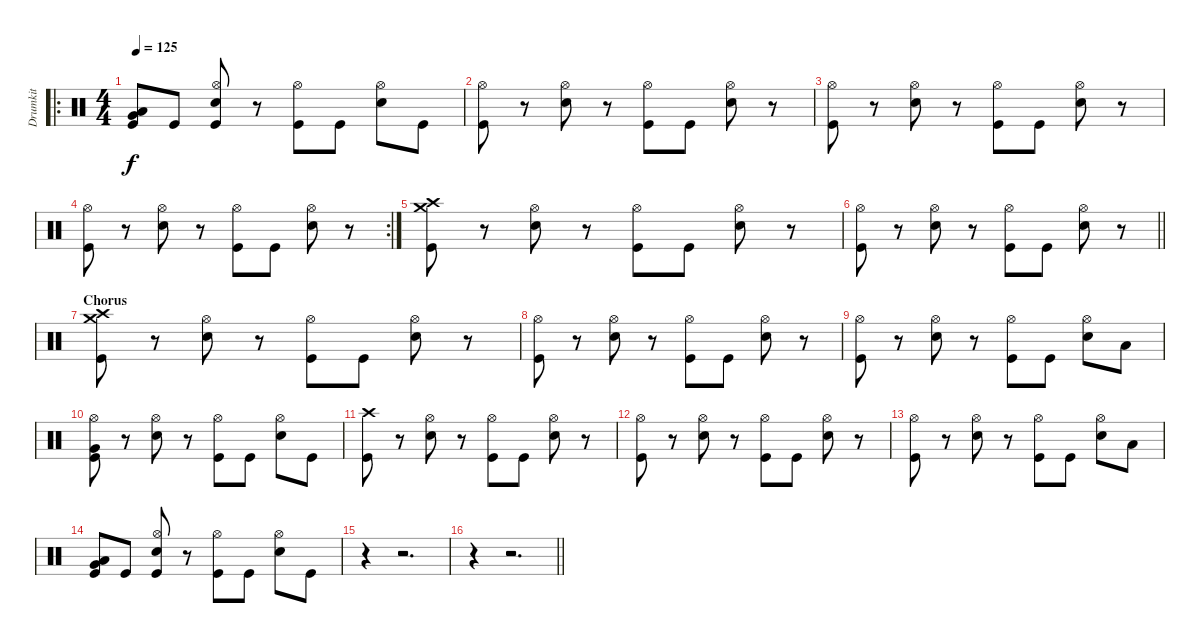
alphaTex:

\track ("Drumkit" "Drumkit") {instrument percussion}
\staff {score}
\articulation defaults
\ro
\ts (4 4)
\tempo 125
\clef neutral
\ks c
("Very Low Tom (hit)" "Low Tom (hit)" "Kick (hit)").8{dy f} "Kick (hit)".8 ("Hi-Hat (open)" "Snare (hit) 2" "Kick (hit)").8 r.8 ("Hi-Hat (open)" "Kick (hit)").8 "Kick (hit)".8 ("Hi-Hat (open)" "Snare (hit) 2").8 "Kick (hit)".8 |
("Hi-Hat (open)" "Kick (hit)").8 r.8 ("Hi-Hat (open)" "Snare (hit) 2").8 r.8 ("Hi-Hat (open)" "Kick (hit)").8 "Kick (hit)".8 ("Hi-Hat (open)" "Snare (hit) 2").8 r.8 |
("Hi-Hat (open)" "Kick (hit)").8 r.8 ("Hi-Hat (open)" "Snare (hit) 2").8 r.8 ("Hi-Hat (open)" "Kick (hit)").8 "Kick (hit)".8 ("Hi-Hat (open)" "Snare (hit) 2").8 r.8 |
\rc 2
("Hi-Hat (open)" "Kick (hit)").8 r.8 ("Hi-Hat (open)" "Snare (hit) 2").8 r.8 ("Hi-Hat (open)" "Kick (hit)").8 "Kick (hit)".8 ("Hi-Hat (open)" "Snare (hit) 2").8 r.8 |
("Crash medium (hit)" "Crash high (hit)" "Kick (hit)").8 r.8 ("Hi-Hat (open)" "Snare (hit) 2").8 r.8 ("Hi-Hat (open)" "Kick (hit)").8 "Kick (hit)".8 ("Hi-Hat (open)" "Snare (hit) 2").8 r.8 |
\barLineRight lightlight
("Hi-Hat (open)" "Kick (hit)").8 r.8 ("Hi-Hat (open)" "Snare (hit) 2").8 r.8 ("Hi-Hat (open)" "Kick (hit)").8 "Kick (hit)".8 ("Hi-Hat (open)" "Snare (hit) 2").8 r.8 |
\section ("" "Chorus")
("Crash medium (hit)" "Crash high (hit)" "Kick (hit)").8 r.8 ("Hi-Hat (open)" "Snare (hit) 2").8 r.8 ("Hi-Hat (open)" "Kick (hit)").8 "Kick (hit)".8 ("Hi-Hat (open)" "Snare (hit) 2").8 r.8 |
("Hi-Hat (open)" "Kick (hit)").8 r.8 ("Hi-Hat (open)" "Snare (hit) 2").8 r.8 ("Hi-Hat (open)" "Kick (hit)").8 "Kick (hit)".8 ("Hi-Hat (open)" "Snare (hit) 2").8 r.8 |
("Hi-Hat (open)" "Kick (hit)").8 r.8 ("Hi-Hat (open)" "Snare (hit) 2").8 r.8 ("Hi-Hat (open)" "Kick (hit)").8 "Kick (hit)".8 ("Hi-Hat (open)" "Snare (hit) 2").8 "Low Tom (hit)".8 |
("Hi-Hat (open)" "Very Low Tom (hit)" "Kick (hit)").8 r.8 ("Hi-Hat (open)" "Snare (hit) 2").8 r.8 ("Hi-Hat (open)" "Kick (hit)").8 "Kick (hit)".8 ("Hi-Hat (open)" "Snare (hit) 2").8 "Kick (hit)".8 |
("Crash high (hit)" "Kick (hit)").8 r.8 ("Hi-Hat (open)" "Snare (hit) 2").8 r.8 ("Hi-Hat (open)" "Kick (hit)").8 "Kick (hit)".8 ("Hi-Hat (open)" "Snare (hit) 2").8 r.8 |
("Hi-Hat (open)" "Kick (hit)").8 r.8 ("Hi-Hat (open)" "Snare (hit) 2").8 r.8 ("Hi-Hat (open)" "Kick (hit)").8 "Kick (hit)".8 ("Hi-Hat (open)" "Snare (hit) 2").8 r.8 |
("Hi-Hat (open)" "Kick (hit)").8 r.8 ("Hi-Hat (open)" "Snare (hit) 2").8 r.8 ("Hi-Hat (open)" "Kick (hit)").8 "Kick (hit)".8 ("Hi-Hat (open)" "Snare (hit) 2").8 "Low Tom (hit)".8 |
("Very Low Tom (hit)" "Low Tom (hit)" "Kick (hit)").8 "Kick (hit)".8 ("Hi-Hat (open)" "Snare (hit) 2" "Kick (hit)").8 r.8 ("Hi-Hat (open)" "Kick (hit)").8 "Kick (hit)".8 ("Hi-Hat (open)" "Snare (hit) 2").8 "Kick (hit)".8 |
r.4 r.2{d} |
\barLineRight lightlight
r.4 r.2{d}
